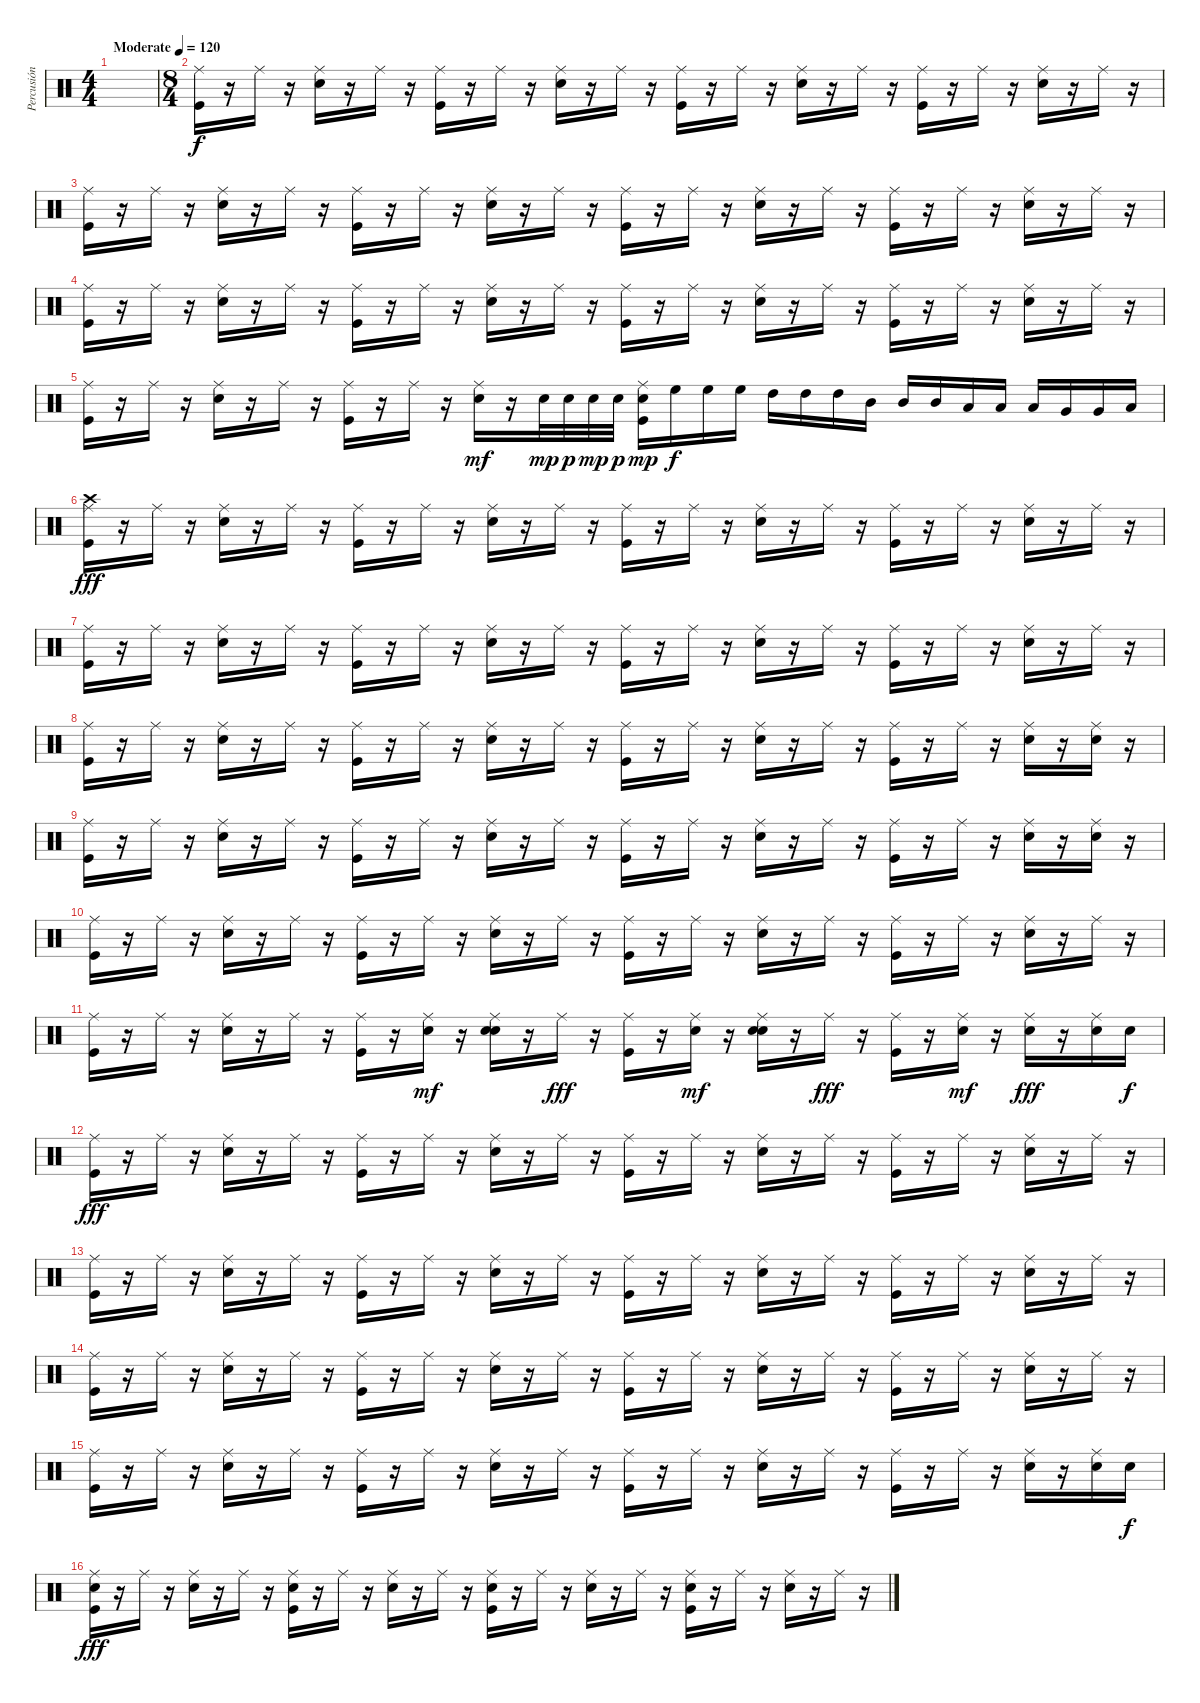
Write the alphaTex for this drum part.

\track ("Percusión" "Percusión") {instrument percussion}
\staff {score}
\articulation defaults
\ts (4 4)
\tempo (120 "Moderate")
\clef neutral
\ks c
|
\ts (8 4)
("Ride (middle)" "Kick (hit)").16 r.16 "Ride (middle)".16 r.16 ("Snare (hit) 2" "Ride (middle)").16 r.16 "Ride (middle)".16 r.16 ("Kick (hit)" "Ride (middle)").16 r.16 "Ride (middle)".16 r.16 ("Snare (hit) 2" "Ride (middle)").16 r.16 "Ride (middle)".16 r.16 ("Kick (hit)" "Ride (middle)").16 r.16 "Ride (middle)".16 r.16 ("Snare (hit) 2" "Ride (middle)").16 r.16 "Ride (middle)".16 r.16 ("Kick (hit)" "Ride (middle)").16 r.16 "Ride (middle)".16 r.16 ("Snare (hit) 2" "Ride (middle)").16 r.16 "Ride (middle)".16 r.16 |
("Ride (middle)" "Kick (hit)").16 r.16 "Ride (middle)".16 r.16 ("Snare (hit) 2" "Ride (middle)").16 r.16 "Ride (middle)".16 r.16 ("Kick (hit)" "Ride (middle)").16 r.16 "Ride (middle)".16 r.16 ("Snare (hit) 2" "Ride (middle)").16 r.16 "Ride (middle)".16 r.16 ("Kick (hit)" "Ride (middle)").16 r.16 "Ride (middle)".16 r.16 ("Snare (hit) 2" "Ride (middle)").16 r.16 "Ride (middle)".16 r.16 ("Kick (hit)" "Ride (middle)").16 r.16 "Ride (middle)".16 r.16 ("Snare (hit) 2" "Ride (middle)").16 r.16 "Ride (middle)".16 r.16 |
("Ride (middle)" "Kick (hit)").16 r.16 "Ride (middle)".16 r.16 ("Snare (hit) 2" "Ride (middle)").16 r.16 "Ride (middle)".16 r.16 ("Kick (hit)" "Ride (middle)").16 r.16 "Ride (middle)".16 r.16 ("Snare (hit) 2" "Ride (middle)").16 r.16 "Ride (middle)".16 r.16 ("Kick (hit)" "Ride (middle)").16 r.16 "Ride (middle)".16 r.16 ("Snare (hit) 2" "Ride (middle)").16 r.16 "Ride (middle)".16 r.16 ("Kick (hit)" "Ride (middle)").16 r.16 "Ride (middle)".16 r.16 ("Snare (hit) 2" "Ride (middle)").16 r.16 "Ride (middle)".16 r.16 |
("Ride (middle)" "Kick (hit)").16 r.16 "Ride (middle)".16 r.16 ("Snare (hit) 2" "Ride (middle)").16 r.16 "Ride (middle)".16 r.16 ("Kick (hit)" "Ride (middle)").16 r.16 "Ride (middle)".16 r.16 ("Ride (middle)" "Snare (hit) 2").16{dy mf} r.16 "Snare (hit) 2".32{dy mp} "Snare (hit) 2".32{dy p} "Snare (hit) 2".32{dy mp} "Snare (hit) 2".32{dy p} ("Kick (hit)" "Ride (middle)" "Snare (hit) 2").16{dy mp} "High Floor Tom (hit)".16{dy f} "High Floor Tom (hit)".16 "High Floor Tom (hit)".16 "High Tom (hit)".16 "High Tom (hit)".16 "High Tom (hit)".16 "Mid Tom (hit)".16 "Mid Tom (hit)".16 "Mid Tom (hit)".16 "Low Tom (hit)".16 "Low Tom (hit)".16 "Low Tom (hit)".16 "Very Low Tom (hit)".16 "Very Low Tom (hit)".16 "Low Floor Tom (hit)".16 |
("Ride (middle)" "Crash high (hit)" "Kick (hit)").16{dy fff} r.16 "Ride (middle)".16 r.16 ("Snare (hit) 2" "Ride (middle)").16 r.16 "Ride (middle)".16 r.16 ("Kick (hit)" "Ride (middle)").16 r.16 "Ride (middle)".16 r.16 ("Snare (hit) 2" "Ride (middle)").16 r.16 "Ride (middle)".16 r.16 ("Kick (hit)" "Ride (middle)").16 r.16 "Ride (middle)".16 r.16 ("Snare (hit) 2" "Ride (middle)").16 r.16 "Ride (middle)".16 r.16 ("Kick (hit)" "Ride (middle)").16 r.16 "Ride (middle)".16 r.16 ("Snare (hit) 2" "Ride (middle)").16 r.16 "Ride (middle)".16 r.16 |
("Ride (middle)" "Kick (hit)").16 r.16 "Ride (middle)".16 r.16 ("Snare (hit) 2" "Ride (middle)").16 r.16 "Ride (middle)".16 r.16 ("Kick (hit)" "Ride (middle)").16 r.16 "Ride (middle)".16 r.16 ("Snare (hit) 2" "Ride (middle)").16 r.16 "Ride (middle)".16 r.16 ("Kick (hit)" "Ride (middle)").16 r.16 "Ride (middle)".16 r.16 ("Snare (hit) 2" "Ride (middle)").16 r.16 "Ride (middle)".16 r.16 ("Kick (hit)" "Ride (middle)").16 r.16 "Ride (middle)".16 r.16 ("Snare (hit) 2" "Ride (middle)").16 r.16 "Ride (middle)".16 r.16 |
("Ride (middle)" "Kick (hit)").16 r.16 "Ride (middle)".16 r.16 ("Snare (hit) 2" "Ride (middle)").16 r.16 "Ride (middle)".16 r.16 ("Kick (hit)" "Ride (middle)").16 r.16 "Ride (middle)".16 r.16 ("Snare (hit) 2" "Ride (middle)").16 r.16 "Ride (middle)".16 r.16 ("Kick (hit)" "Ride (middle)").16 r.16 "Ride (middle)".16 r.16 ("Snare (hit) 2" "Ride (middle)").16 r.16 "Ride (middle)".16 r.16 ("Kick (hit)" "Ride (middle)").16 r.16 "Ride (middle)".16 r.16 ("Snare (hit) 2" "Ride (middle)").16 r.16 ("Snare (hit) 2" "Ride (middle)").16 r.16 |
("Ride (middle)" "Kick (hit)").16 r.16 "Ride (middle)".16 r.16 ("Snare (hit) 2" "Ride (middle)").16 r.16 "Ride (middle)".16 r.16 ("Kick (hit)" "Ride (middle)").16 r.16 "Ride (middle)".16 r.16 ("Snare (hit) 2" "Ride (middle)").16 r.16 "Ride (middle)".16 r.16 ("Kick (hit)" "Ride (middle)").16 r.16 "Ride (middle)".16 r.16 ("Snare (hit) 2" "Ride (middle)").16 r.16 "Ride (middle)".16 r.16 ("Kick (hit)" "Ride (middle)").16 r.16 "Ride (middle)".16 r.16 ("Snare (hit) 2" "Ride (middle)").16 r.16 ("Snare (hit) 2" "Ride (middle)").16 r.16 |
("Ride (middle)" "Kick (hit)").16 r.16 "Ride (middle)".16 r.16 ("Snare (hit) 2" "Ride (middle)").16 r.16 "Ride (middle)".16 r.16 ("Kick (hit)" "Ride (middle)").16 r.16 "Ride (middle)".16 r.16 ("Snare (hit) 2" "Ride (middle)").16 r.16 "Ride (middle)".16 r.16 ("Kick (hit)" "Ride (middle)").16 r.16 "Ride (middle)".16 r.16 ("Snare (hit) 2" "Ride (middle)").16 r.16 "Ride (middle)".16 r.16 ("Kick (hit)" "Ride (middle)").16 r.16 "Ride (middle)".16 r.16 ("Snare (hit) 2" "Ride (middle)").16 r.16 "Ride (middle)".16 r.16 |
("Ride (middle)" "Kick (hit)").16 r.16 "Ride (middle)".16 r.16 ("Snare (hit) 2" "Ride (middle)").16 r.16 "Ride (middle)".16 r.16 ("Kick (hit)" "Ride (middle)").16 r.16 ("Ride (middle)" "Snare (hit) 2").16{dy mf} r.16 ("Snare (hit) 2" "Ride (middle)" "Snare (hit) 2").16 r.16 "Ride (middle)".16{dy fff} r.16 ("Kick (hit)" "Ride (middle)").16 r.16 ("Ride (middle)" "Snare (hit) 2").16{dy mf} r.16 ("Snare (hit) 2" "Ride (middle)" "Snare (hit) 2").16 r.16 "Ride (middle)".16{dy fff} r.16 ("Kick (hit)" "Ride (middle)").16 r.16 ("Ride (middle)" "Snare (hit) 2").16{dy mf} r.16 ("Snare (hit) 2" "Ride (middle)").16{dy fff} r.16 ("Snare (hit) 2" "Ride (middle)").16 "Snare (hit) 2".16{dy f} |
("Ride (middle)" "Kick (hit)").16{dy fff} r.16 "Ride (middle)".16 r.16 ("Snare (hit) 2" "Ride (middle)").16 r.16 "Ride (middle)".16 r.16 ("Kick (hit)" "Ride (middle)").16 r.16 "Ride (middle)".16 r.16 ("Snare (hit) 2" "Ride (middle)").16 r.16 "Ride (middle)".16 r.16 ("Kick (hit)" "Ride (middle)").16 r.16 "Ride (middle)".16 r.16 ("Snare (hit) 2" "Ride (middle)").16 r.16 "Ride (middle)".16 r.16 ("Kick (hit)" "Ride (middle)").16 r.16 "Ride (middle)".16 r.16 ("Snare (hit) 2" "Ride (middle)").16 r.16 "Ride (middle)".16 r.16 |
("Ride (middle)" "Kick (hit)").16 r.16 "Ride (middle)".16 r.16 ("Snare (hit) 2" "Ride (middle)").16 r.16 "Ride (middle)".16 r.16 ("Kick (hit)" "Ride (middle)").16 r.16 "Ride (middle)".16 r.16 ("Snare (hit) 2" "Ride (middle)").16 r.16 "Ride (middle)".16 r.16 ("Kick (hit)" "Ride (middle)").16 r.16 "Ride (middle)".16 r.16 ("Snare (hit) 2" "Ride (middle)").16 r.16 "Ride (middle)".16 r.16 ("Kick (hit)" "Ride (middle)").16 r.16 "Ride (middle)".16 r.16 ("Snare (hit) 2" "Ride (middle)").16 r.16 "Ride (middle)".16 r.16 |
("Ride (middle)" "Kick (hit)").16 r.16 "Ride (middle)".16 r.16 ("Snare (hit) 2" "Ride (middle)").16 r.16 "Ride (middle)".16 r.16 ("Kick (hit)" "Ride (middle)").16 r.16 "Ride (middle)".16 r.16 ("Snare (hit) 2" "Ride (middle)").16 r.16 "Ride (middle)".16 r.16 ("Kick (hit)" "Ride (middle)").16 r.16 "Ride (middle)".16 r.16 ("Snare (hit) 2" "Ride (middle)").16 r.16 "Ride (middle)".16 r.16 ("Kick (hit)" "Ride (middle)").16 r.16 "Ride (middle)".16 r.16 ("Snare (hit) 2" "Ride (middle)").16 r.16 "Ride (middle)".16 r.16 |
("Ride (middle)" "Kick (hit)").16 r.16 "Ride (middle)".16 r.16 ("Snare (hit) 2" "Ride (middle)").16 r.16 "Ride (middle)".16 r.16 ("Kick (hit)" "Ride (middle)").16 r.16 "Ride (middle)".16 r.16 ("Snare (hit) 2" "Ride (middle)").16 r.16 "Ride (middle)".16 r.16 ("Kick (hit)" "Ride (middle)").16 r.16 "Ride (middle)".16 r.16 ("Snare (hit) 2" "Ride (middle)").16 r.16 "Ride (middle)".16 r.16 ("Kick (hit)" "Ride (middle)").16 r.16 "Ride (middle)".16 r.16 ("Snare (hit) 2" "Ride (middle)").16 r.16 ("Snare (hit) 2" "Ride (middle)").16 "Snare (hit) 2".16{dy f} |
("Snare (hit) 2" "Ride (middle)" "Kick (hit)").16{dy fff} r.16 "Ride (middle)".16 r.16 ("Snare (hit) 2" "Ride (middle)").16 r.16 "Ride (middle)".16 r.16 ("Kick (hit)" "Snare (hit) 2" "Ride (middle)").16 r.16 "Ride (middle)".16 r.16 ("Snare (hit) 2" "Ride (middle)").16 r.16 "Ride (middle)".16 r.16 ("Kick (hit)" "Snare (hit) 2" "Ride (middle)").16 r.16 "Ride (middle)".16 r.16 ("Snare (hit) 2" "Ride (middle)").16 r.16 "Ride (middle)".16 r.16 ("Kick (hit)" "Snare (hit) 2" "Ride (middle)").16 r.16 "Ride (middle)".16 r.16 ("Snare (hit) 2" "Ride (middle)").16 r.16 "Ride (middle)".16 r.16
